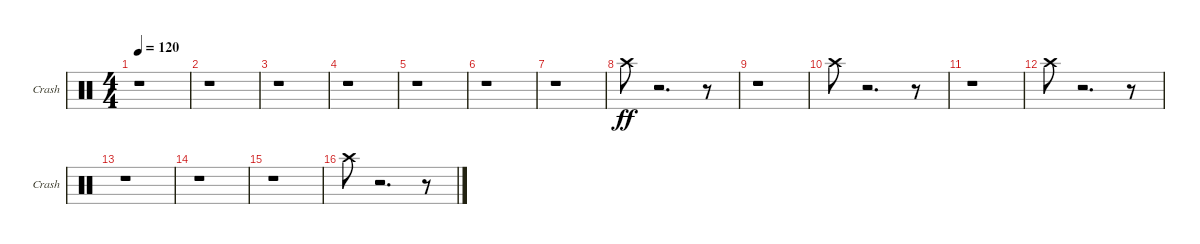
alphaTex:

\bracketExtendMode groupsimilarinstruments
\singleTrackTrackNamePolicy allsystems
\multiTrackTrackNamePolicy allsystems
\firstSystemTrackNameOrientation horizontal
\otherSystemsTrackNameOrientation horizontal
\track ("Cymbal" "Crash") {instrument percussion}
\staff {score}
\articulation defaults
\ts (4 4)
\tempo 120
\clef neutral
\scale
0.333333
\ks c
r.1{dy ff} |
\scale
0.333333 r.1 |
\scale
0.333333 r.1 |
\scale
0.333333 r.1 |
\scale
0.333333 r.1 |
\scale
0.333333 r.1 |
\scale
0.333333 r.1 |
\scale
0.333333 "Crash high (hit)".8 r.2{d} r.8 |
\scale
0.333333 r.1 |
\scale
0.333333 "Crash high (hit)".8 r.2{d} r.8 |
\scale
0.333333 r.1 |
\scale
0.333333 "Crash high (hit)".8 r.2{d} r.8 |
\scale
0.333333 r.1 |
\scale
0.333333 r.1 |
\scale
0.333333 r.1 |
\scale
0.333333 "Crash high (hit)".8 r.2{d} r.8
